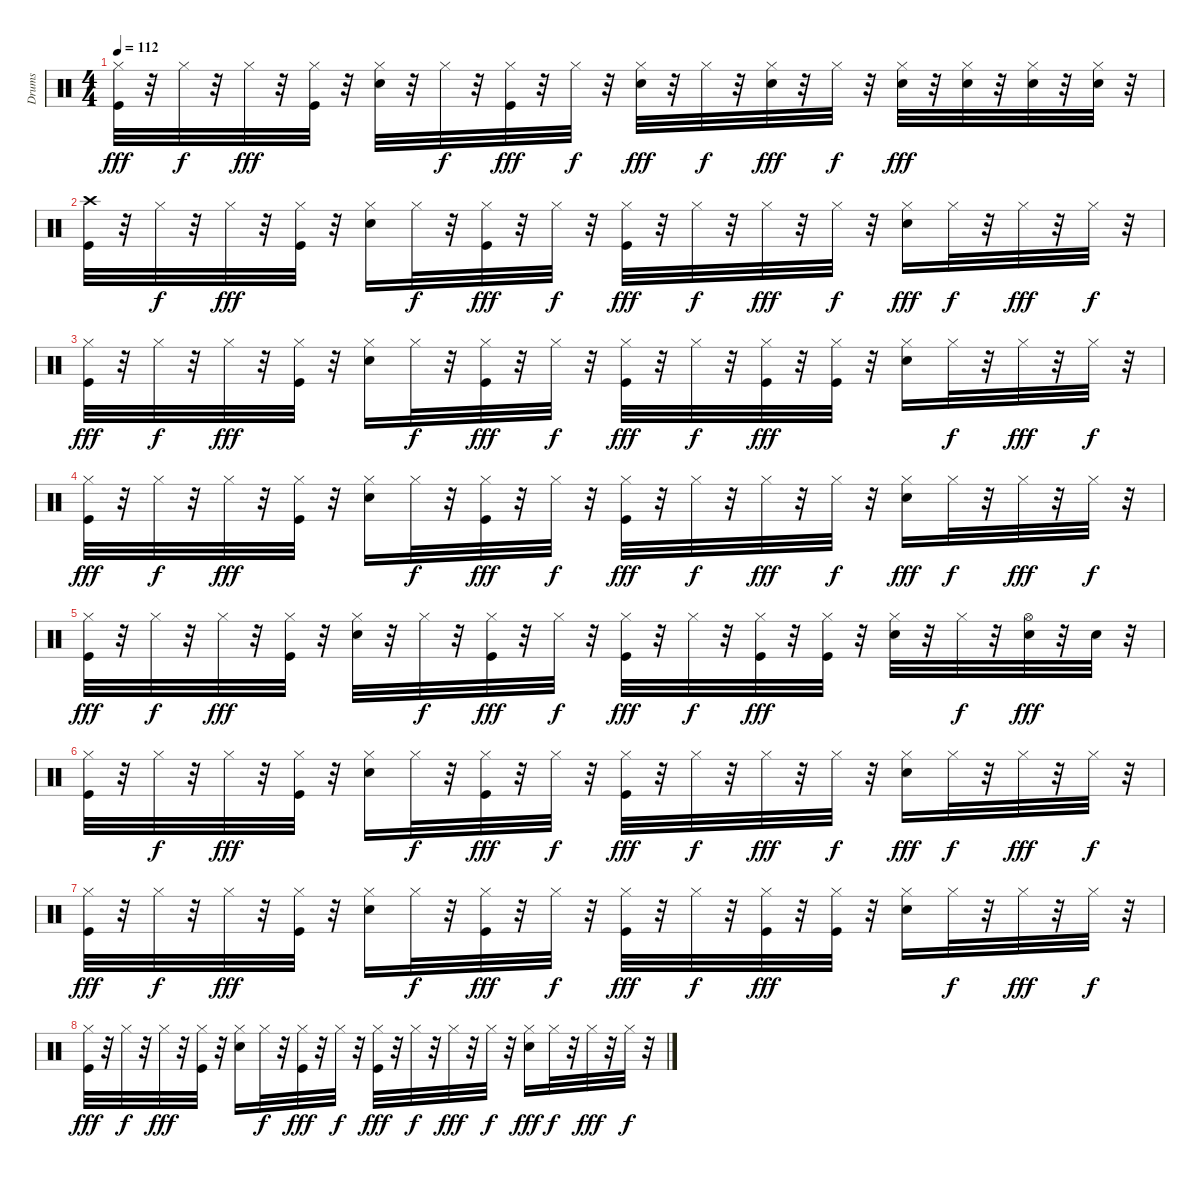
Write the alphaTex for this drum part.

\track ("Drums" "Drums") {instrument percussion}
\staff {score}
\articulation defaults
\ts (4 4)
\tempo 112
\clef neutral
\ks c
("Kick (hit)" "Hi-Hat (closed)").32{dy fff} r.32 "Hi-Hat (closed)".32{dy f} r.32 "Hi-Hat (closed)".32{dy fff} r.32 ("Kick (hit)" "Hi-Hat (closed)").32 r.32 ("Snare (hit) 2" "Hi-Hat (closed)").32 r.32 "Hi-Hat (closed)".32{dy f} r.32 ("Kick (hit)" "Hi-Hat (closed)").32{dy fff} r.32 "Hi-Hat (closed)".32{dy f} r.32 ("Snare (hit) 2" "Hi-Hat (closed)").32{dy fff} r.32 "Hi-Hat (closed)".32{dy f} r.32 ("Snare (hit) 2" "Hi-Hat (closed)").32{dy fff} r.32 "Hi-Hat (closed)".32{dy f} r.32 ("Snare (hit) 2" "Hi-Hat (closed)").32{dy fff} r.32 ("Snare (hit) 2" "Hi-Hat (closed)").32 r.32 ("Snare (hit) 2" "Hi-Hat (closed)").32 r.32 ("Snare (hit) 2" "Hi-Hat (closed)").32 r.32 |
("Kick (hit)" "Crash high (hit)").32 r.32 "Hi-Hat (closed)".32{dy f} r.32 "Hi-Hat (closed)".32{dy fff} r.32 ("Kick (hit)" "Hi-Hat (closed)").32 r.32 ("Snare (hit) 2" "Hi-Hat (closed)").16 "Hi-Hat (closed)".32{dy f} r.32 ("Kick (hit)" "Hi-Hat (closed)").32{dy fff} r.32 "Hi-Hat (closed)".32{dy f} r.32 ("Kick (hit)" "Hi-Hat (closed)").32{dy fff} r.32 "Hi-Hat (closed)".32{dy f} r.32 "Hi-Hat (closed)".32{dy fff} r.32 "Hi-Hat (closed)".32{dy f} r.32 ("Snare (hit) 2" "Hi-Hat (closed)").16{dy fff} "Hi-Hat (closed)".32{dy f} r.32 "Hi-Hat (closed)".32{dy fff} r.32 "Hi-Hat (closed)".32{dy f} r.32 |
("Kick (hit)" "Hi-Hat (closed)").32{dy fff} r.32 "Hi-Hat (closed)".32{dy f} r.32 "Hi-Hat (closed)".32{dy fff} r.32 ("Kick (hit)" "Hi-Hat (closed)").32 r.32 ("Snare (hit) 2" "Hi-Hat (closed)").16 "Hi-Hat (closed)".32{dy f} r.32 ("Kick (hit)" "Hi-Hat (closed)").32{dy fff} r.32 "Hi-Hat (closed)".32{dy f} r.32 ("Kick (hit)" "Hi-Hat (closed)").32{dy fff} r.32 "Hi-Hat (closed)".32{dy f} r.32 ("Kick (hit)" "Hi-Hat (closed)").32{dy fff} r.32 ("Kick (hit)" "Hi-Hat (closed)").32 r.32 ("Snare (hit) 2" "Hi-Hat (closed)").16 "Hi-Hat (closed)".32{dy f} r.32 "Hi-Hat (closed)".32{dy fff} r.32 "Hi-Hat (closed)".32{dy f} r.32 |
("Kick (hit)" "Hi-Hat (closed)").32{dy fff} r.32 "Hi-Hat (closed)".32{dy f} r.32 "Hi-Hat (closed)".32{dy fff} r.32 ("Kick (hit)" "Hi-Hat (closed)").32 r.32 ("Snare (hit) 2" "Hi-Hat (closed)").16 "Hi-Hat (closed)".32{dy f} r.32 ("Kick (hit)" "Hi-Hat (closed)").32{dy fff} r.32 "Hi-Hat (closed)".32{dy f} r.32 ("Kick (hit)" "Hi-Hat (closed)").32{dy fff} r.32 "Hi-Hat (closed)".32{dy f} r.32 "Hi-Hat (closed)".32{dy fff} r.32 "Hi-Hat (closed)".32{dy f} r.32 ("Snare (hit) 2" "Hi-Hat (closed)").16{dy fff} "Hi-Hat (closed)".32{dy f} r.32 "Hi-Hat (closed)".32{dy fff} r.32 "Hi-Hat (closed)".32{dy f} r.32 |
("Kick (hit)" "Hi-Hat (closed)").32{dy fff} r.32 "Hi-Hat (closed)".32{dy f} r.32 "Hi-Hat (closed)".32{dy fff} r.32 ("Kick (hit)" "Hi-Hat (closed)").32 r.32 ("Snare (hit) 2" "Hi-Hat (closed)").32 r.32 "Hi-Hat (closed)".32{dy f} r.32 ("Kick (hit)" "Hi-Hat (closed)").32{dy fff} r.32 "Hi-Hat (closed)".32{dy f} r.32 ("Kick (hit)" "Hi-Hat (closed)").32{dy fff} r.32 "Hi-Hat (closed)".32{dy f} r.32 ("Kick (hit)" "Hi-Hat (closed)").32{dy fff} r.32 ("Kick (hit)" "Hi-Hat (closed)").32 r.32 ("Snare (hit) 2" "Hi-Hat (closed)").32 r.32 "Hi-Hat (closed)".32{dy f} r.32 ("Snare (hit) 2" "Hi-Hat (open)").32{dy fff} r.32 "Snare (hit) 2".32 r.32 |
("Kick (hit)" "Hi-Hat (closed)").32 r.32 "Hi-Hat (closed)".32{dy f} r.32 "Hi-Hat (closed)".32{dy fff} r.32 ("Kick (hit)" "Hi-Hat (closed)").32 r.32 ("Snare (hit) 2" "Hi-Hat (closed)").16 "Hi-Hat (closed)".32{dy f} r.32 ("Kick (hit)" "Hi-Hat (closed)").32{dy fff} r.32 "Hi-Hat (closed)".32{dy f} r.32 ("Kick (hit)" "Hi-Hat (closed)").32{dy fff} r.32 "Hi-Hat (closed)".32{dy f} r.32 "Hi-Hat (closed)".32{dy fff} r.32 "Hi-Hat (closed)".32{dy f} r.32 ("Snare (hit) 2" "Hi-Hat (closed)").16{dy fff} "Hi-Hat (closed)".32{dy f} r.32 "Hi-Hat (closed)".32{dy fff} r.32 "Hi-Hat (closed)".32{dy f} r.32 |
("Kick (hit)" "Hi-Hat (closed)").32{dy fff} r.32 "Hi-Hat (closed)".32{dy f} r.32 "Hi-Hat (closed)".32{dy fff} r.32 ("Kick (hit)" "Hi-Hat (closed)").32 r.32 ("Snare (hit) 2" "Hi-Hat (closed)").16 "Hi-Hat (closed)".32{dy f} r.32 ("Kick (hit)" "Hi-Hat (closed)").32{dy fff} r.32 "Hi-Hat (closed)".32{dy f} r.32 ("Kick (hit)" "Hi-Hat (closed)").32{dy fff} r.32 "Hi-Hat (closed)".32{dy f} r.32 ("Kick (hit)" "Hi-Hat (closed)").32{dy fff} r.32 ("Kick (hit)" "Hi-Hat (closed)").32 r.32 ("Snare (hit) 2" "Hi-Hat (closed)").16 "Hi-Hat (closed)".32{dy f} r.32 "Hi-Hat (closed)".32{dy fff} r.32 "Hi-Hat (closed)".32{dy f} r.32 |
("Kick (hit)" "Hi-Hat (closed)").32{dy fff} r.32 "Hi-Hat (closed)".32{dy f} r.32 "Hi-Hat (closed)".32{dy fff} r.32 ("Kick (hit)" "Hi-Hat (closed)").32 r.32 ("Snare (hit) 2" "Hi-Hat (closed)").16 "Hi-Hat (closed)".32{dy f} r.32 ("Kick (hit)" "Hi-Hat (closed)").32{dy fff} r.32 "Hi-Hat (closed)".32{dy f} r.32 ("Kick (hit)" "Hi-Hat (closed)").32{dy fff} r.32 "Hi-Hat (closed)".32{dy f} r.32 "Hi-Hat (closed)".32{dy fff} r.32 "Hi-Hat (closed)".32{dy f} r.32 ("Snare (hit) 2" "Hi-Hat (closed)").16{dy fff} "Hi-Hat (closed)".32{dy f} r.32 "Hi-Hat (closed)".32{dy fff} r.32 "Hi-Hat (closed)".32{dy f} r.32
